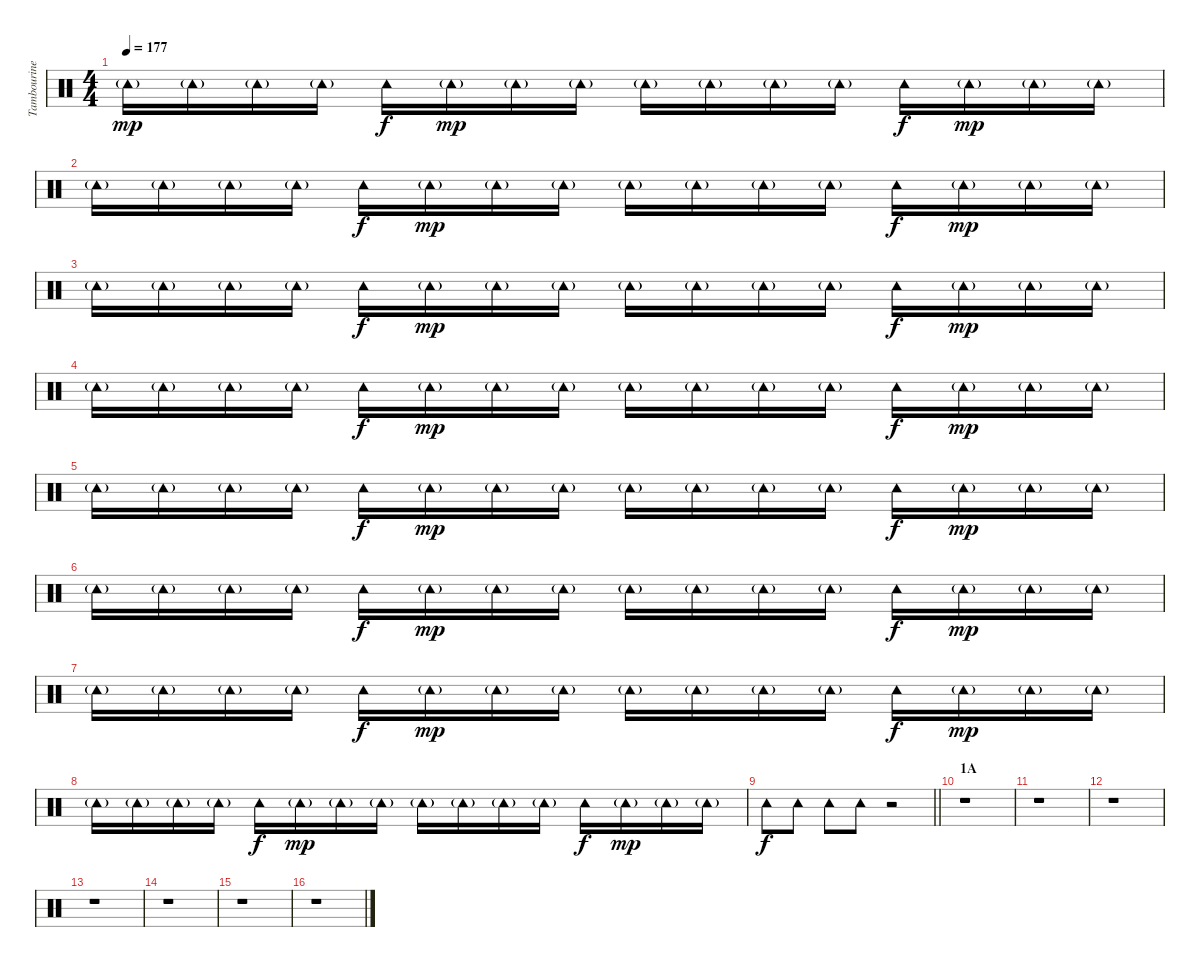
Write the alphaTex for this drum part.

\track ("Tambourine" "Tambourine") {instrument percussion}
\staff {score}
\articulation defaults
\ts (4 4)
\tempo 177
\clef neutral
\ks c "Tambourine (hit)"{g}.16{dy mp} "Tambourine (hit)"{g}.16 "Tambourine (hit)"{g}.16 "Tambourine (hit)"{g}.16 "Tambourine (hit)".16{dy f} "Tambourine (hit)"{g}.16{dy mp} "Tambourine (hit)"{g}.16 "Tambourine (hit)"{g}.16 "Tambourine (hit)"{g}.16 "Tambourine (hit)"{g}.16 "Tambourine (hit)"{g}.16 "Tambourine (hit)"{g}.16 "Tambourine (hit)".16{dy f} "Tambourine (hit)"{g}.16{dy mp} "Tambourine (hit)"{g}.16 "Tambourine (hit)"{g}.16
|
"Tambourine (hit)"{g}.16 "Tambourine (hit)"{g}.16 "Tambourine (hit)"{g}.16 "Tambourine (hit)"{g}.16 "Tambourine (hit)".16{dy f} "Tambourine (hit)"{g}.16{dy mp} "Tambourine (hit)"{g}.16 "Tambourine (hit)"{g}.16 "Tambourine (hit)"{g}.16 "Tambourine (hit)"{g}.16 "Tambourine (hit)"{g}.16 "Tambourine (hit)"{g}.16 "Tambourine (hit)".16{dy f} "Tambourine (hit)"{g}.16{dy mp} "Tambourine (hit)"{g}.16 "Tambourine (hit)"{g}.16 |
"Tambourine (hit)"{g}.16 "Tambourine (hit)"{g}.16 "Tambourine (hit)"{g}.16 "Tambourine (hit)"{g}.16 "Tambourine (hit)".16{dy f} "Tambourine (hit)"{g}.16{dy mp} "Tambourine (hit)"{g}.16 "Tambourine (hit)"{g}.16 "Tambourine (hit)"{g}.16 "Tambourine (hit)"{g}.16 "Tambourine (hit)"{g}.16 "Tambourine (hit)"{g}.16 "Tambourine (hit)".16{dy f} "Tambourine (hit)"{g}.16{dy mp} "Tambourine (hit)"{g}.16 "Tambourine (hit)"{g}.16 |
"Tambourine (hit)"{g}.16 "Tambourine (hit)"{g}.16 "Tambourine (hit)"{g}.16 "Tambourine (hit)"{g}.16 "Tambourine (hit)".16{dy f} "Tambourine (hit)"{g}.16{dy mp} "Tambourine (hit)"{g}.16 "Tambourine (hit)"{g}.16 "Tambourine (hit)"{g}.16 "Tambourine (hit)"{g}.16 "Tambourine (hit)"{g}.16 "Tambourine (hit)"{g}.16 "Tambourine (hit)".16{dy f} "Tambourine (hit)"{g}.16{dy mp} "Tambourine (hit)"{g}.16 "Tambourine (hit)"{g}.16 |
"Tambourine (hit)"{g}.16 "Tambourine (hit)"{g}.16 "Tambourine (hit)"{g}.16 "Tambourine (hit)"{g}.16 "Tambourine (hit)".16{dy f} "Tambourine (hit)"{g}.16{dy mp} "Tambourine (hit)"{g}.16 "Tambourine (hit)"{g}.16 "Tambourine (hit)"{g}.16 "Tambourine (hit)"{g}.16 "Tambourine (hit)"{g}.16 "Tambourine (hit)"{g}.16 "Tambourine (hit)".16{dy f} "Tambourine (hit)"{g}.16{dy mp} "Tambourine (hit)"{g}.16 "Tambourine (hit)"{g}.16 |
"Tambourine (hit)"{g}.16 "Tambourine (hit)"{g}.16 "Tambourine (hit)"{g}.16 "Tambourine (hit)"{g}.16 "Tambourine (hit)".16{dy f} "Tambourine (hit)"{g}.16{dy mp} "Tambourine (hit)"{g}.16 "Tambourine (hit)"{g}.16 "Tambourine (hit)"{g}.16 "Tambourine (hit)"{g}.16 "Tambourine (hit)"{g}.16 "Tambourine (hit)"{g}.16 "Tambourine (hit)".16{dy f} "Tambourine (hit)"{g}.16{dy mp} "Tambourine (hit)"{g}.16 "Tambourine (hit)"{g}.16 |
"Tambourine (hit)"{g}.16 "Tambourine (hit)"{g}.16 "Tambourine (hit)"{g}.16 "Tambourine (hit)"{g}.16 "Tambourine (hit)".16{dy f} "Tambourine (hit)"{g}.16{dy mp} "Tambourine (hit)"{g}.16 "Tambourine (hit)"{g}.16 "Tambourine (hit)"{g}.16 "Tambourine (hit)"{g}.16 "Tambourine (hit)"{g}.16 "Tambourine (hit)"{g}.16 "Tambourine (hit)".16{dy f} "Tambourine (hit)"{g}.16{dy mp} "Tambourine (hit)"{g}.16 "Tambourine (hit)"{g}.16 |
"Tambourine (hit)"{g}.16 "Tambourine (hit)"{g}.16 "Tambourine (hit)"{g}.16 "Tambourine (hit)"{g}.16 "Tambourine (hit)".16{dy f} "Tambourine (hit)"{g}.16{dy mp} "Tambourine (hit)"{g}.16 "Tambourine (hit)"{g}.16 "Tambourine (hit)"{g}.16 "Tambourine (hit)"{g}.16 "Tambourine (hit)"{g}.16 "Tambourine (hit)"{g}.16 "Tambourine (hit)".16{dy f} "Tambourine (hit)"{g}.16{dy mp} "Tambourine (hit)"{g}.16 "Tambourine (hit)"{g}.16 |
\barLineRight lightlight "Tambourine (hit)".8{dy f} "Tambourine (hit)".8 "Tambourine (hit)".8 "Tambourine (hit)".8
r.2 |
\section ("" "1A")
r.1 |
r.1 |
r.1 |
r.1 |
r.1 |
r.1 |
r.1
